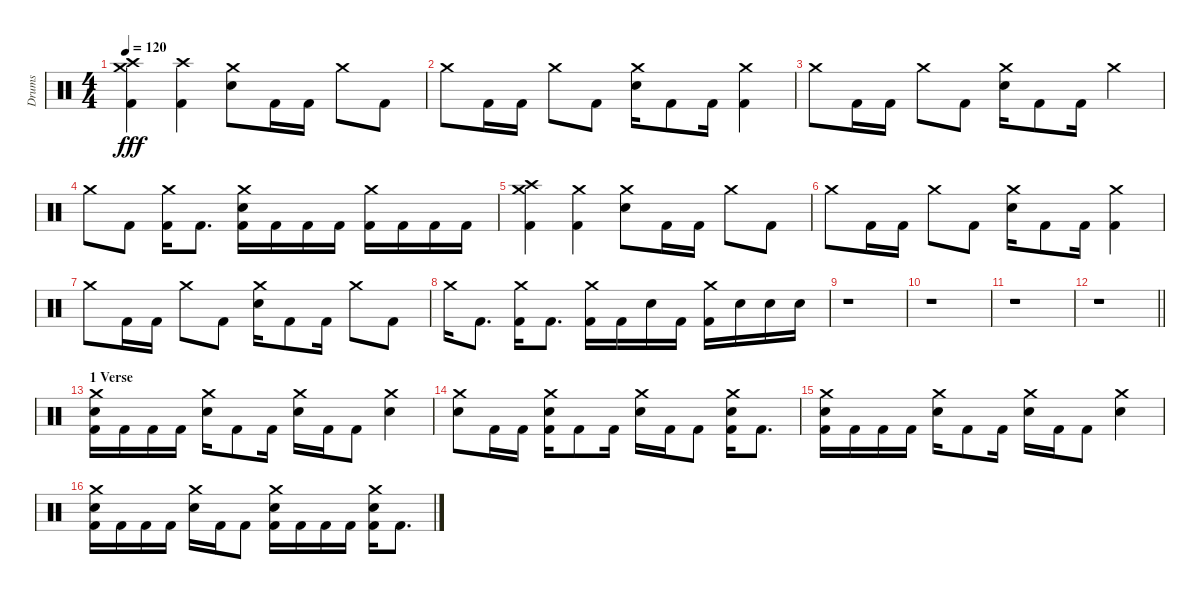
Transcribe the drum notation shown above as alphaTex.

\track ("Drums" "Drums") {instrument percussion}
\staff {score}
\articulation defaults
\ts (4 4)
\tempo 120
\clef neutral
\ks c
("Crash medium (hit)" "Crash high (hit)" "Kick (hit) 2").4{dy fff} ("Crash high (hit)" "Kick (hit) 2").4 ("Crash medium (hit)" "Electric Snare (hit)").8 "Kick (hit) 2".16 "Kick (hit) 2".16 "Crash medium (hit)".8 "Kick (hit) 2".8 |
"Crash medium (hit)".8 "Kick (hit) 2".16 "Kick (hit) 2".16 "Crash medium (hit)".8 "Kick (hit) 2".8 ("Crash medium (hit)" "Electric Snare (hit)").16 "Kick (hit) 2".8 "Kick (hit) 2".16 ("Crash medium (hit)" "Kick (hit) 2").4 |
"Crash medium (hit)".8 "Kick (hit) 2".16 "Kick (hit) 2".16 "Crash medium (hit)".8 "Kick (hit) 2".8 ("Crash medium (hit)" "Electric Snare (hit)").16 "Kick (hit) 2".8 "Kick (hit) 2".16 "Crash medium (hit)".4 |
"Crash medium (hit)".8 "Kick (hit) 2".8 ("Crash medium (hit)" "Kick (hit) 2").16 "Kick (hit) 2".8{d} ("Crash medium (hit)" "Electric Snare (hit)" "Kick (hit) 2").16 "Kick (hit) 2".16 "Kick (hit) 2".16 "Kick (hit) 2".16 ("Crash medium (hit)" "Kick (hit) 2").16 "Kick (hit) 2".16 "Kick (hit) 2".16 "Kick (hit) 2".16 |
("Crash medium (hit)" "Crash high (hit)" "Kick (hit) 2").4 ("Crash medium (hit)" "Kick (hit) 2").4 ("Crash medium (hit)" "Electric Snare (hit)").8 "Kick (hit) 2".16 "Kick (hit) 2".16 "Crash medium (hit)".8 "Kick (hit) 2".8 |
"Crash medium (hit)".8 "Kick (hit) 2".16 "Kick (hit) 2".16 "Crash medium (hit)".8 "Kick (hit) 2".8 ("Crash medium (hit)" "Electric Snare (hit)").16 "Kick (hit) 2".8 "Kick (hit) 2".16 ("Crash medium (hit)" "Kick (hit) 2").4 |
"Crash medium (hit)".8 "Kick (hit) 2".16 "Kick (hit) 2".16 "Crash medium (hit)".8 "Kick (hit) 2".8 ("Crash medium (hit)" "Electric Snare (hit)").16 "Kick (hit) 2".8 "Kick (hit) 2".16 "Crash medium (hit)".8 "Kick (hit) 2".8 |
"Crash medium (hit)".16 "Kick (hit) 2".8{d} ("Crash medium (hit)" "Kick (hit) 2").16 "Kick (hit) 2".8{d} ("Crash medium (hit)" "Kick (hit) 2").16 "Kick (hit) 2".16 "Electric Snare (hit)".16 "Kick (hit) 2".16 ("Crash medium (hit)" "Kick (hit) 2").16 "Electric Snare (hit)".16 "Electric Snare (hit)".16 "Electric Snare (hit)".16 |
r.1 |
r.1 |
r.1 |
\barLineRight lightlight
r.1 |
\section ("" "1 Verse")
("Crash medium (hit)" "Electric Snare (hit)" "Kick (hit) 2").16 "Kick (hit) 2".16 "Kick (hit) 2".16 "Kick (hit) 2".16 ("Crash medium (hit)" "Electric Snare (hit)").16 "Kick (hit) 2".8 "Kick (hit) 2".16 ("Crash medium (hit)" "Electric Snare (hit)").16 "Kick (hit) 2".16 "Kick (hit) 2".8 ("Crash medium (hit)" "Electric Snare (hit)").4 |
("Crash medium (hit)" "Electric Snare (hit)").8 "Kick (hit) 2".16 "Kick (hit) 2".16 ("Crash medium (hit)" "Electric Snare (hit)" "Kick (hit) 2").16 "Kick (hit) 2".8 "Kick (hit) 2".16 ("Crash medium (hit)" "Electric Snare (hit)").16 "Kick (hit) 2".16 "Kick (hit) 2".8 ("Crash medium (hit)" "Electric Snare (hit)" "Kick (hit) 2").16 "Kick (hit) 2".8{d} |
("Crash medium (hit)" "Electric Snare (hit)" "Kick (hit) 2").16 "Kick (hit) 2".16 "Kick (hit) 2".16 "Kick (hit) 2".16 ("Crash medium (hit)" "Electric Snare (hit)").16 "Kick (hit) 2".8 "Kick (hit) 2".16 ("Crash medium (hit)" "Electric Snare (hit)").16 "Kick (hit) 2".16 "Kick (hit) 2".8 ("Crash medium (hit)" "Electric Snare (hit)").4 |
("Crash medium (hit)" "Electric Snare (hit)" "Kick (hit) 2").16 "Kick (hit) 2".16 "Kick (hit) 2".16 "Kick (hit) 2".16 ("Crash medium (hit)" "Electric Snare (hit)").16 "Kick (hit) 2".16 "Kick (hit) 2".8 ("Crash medium (hit)" "Electric Snare (hit)" "Kick (hit) 2").16 "Kick (hit) 2".16 "Kick (hit) 2".16 "Kick (hit) 2".16 ("Crash medium (hit)" "Electric Snare (hit)" "Kick (hit) 2").16 "Kick (hit) 2".8{d}
